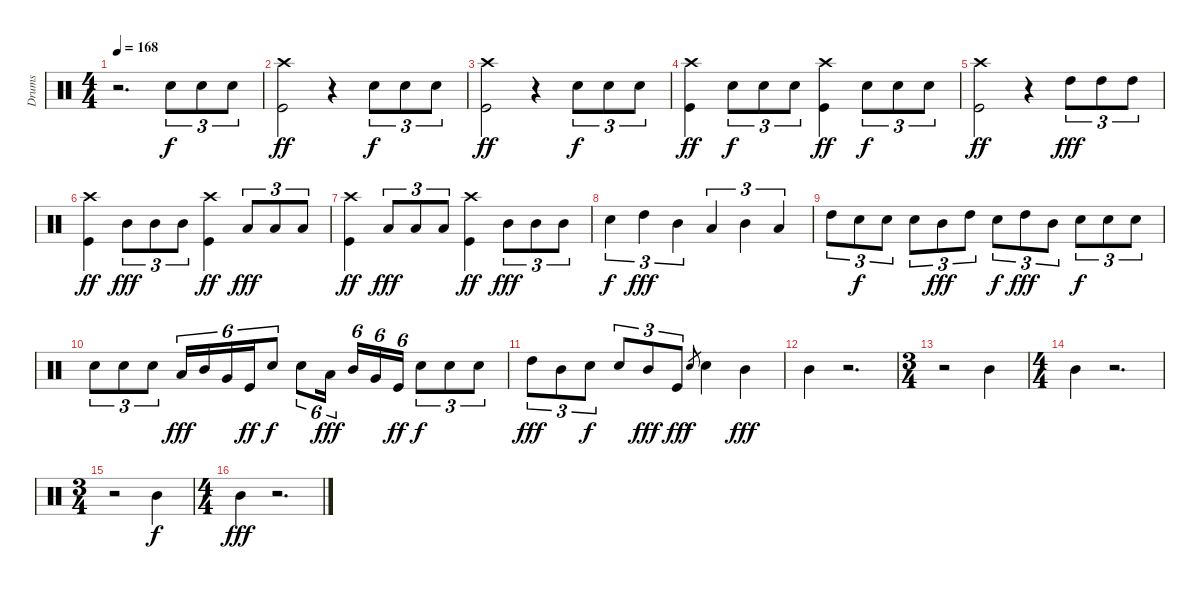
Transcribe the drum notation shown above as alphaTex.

\track ("Drums" "Drums") {instrument percussion}
\staff {score}
\articulation defaults
\ts (4 4)
\tempo 168
\clef neutral
\ks c
r.2{d dy f} "Electric Snare (hit)".8{tu (3 2)} "Electric Snare (hit)".8{tu (3 2)} "Electric Snare (hit)".8{tu (3 2)} |
("Crash high (hit)" "Kick (hit)").2{dy ff} r.4 "Electric Snare (hit)".8{tu (3 2) dy f} "Electric Snare (hit)".8{tu (3 2)} "Electric Snare (hit)".8{tu (3 2)} |
("Crash high (hit)" "Kick (hit)").2{dy ff} r.4 "Electric Snare (hit)".8{tu (3 2) dy f} "Electric Snare (hit)".8{tu (3 2)} "Electric Snare (hit)".8{tu (3 2)} |
("Crash high (hit)" "Kick (hit)").4{dy ff} "Electric Snare (hit)".8{tu (3 2) dy f} "Electric Snare (hit)".8{tu (3 2)} "Electric Snare (hit)".8{tu (3 2)} ("Crash high (hit)" "Kick (hit)").4{dy ff} "Electric Snare (hit)".8{tu (3 2) dy f} "Electric Snare (hit)".8{tu (3 2)} "Electric Snare (hit)".8{tu (3 2)} |
("Crash high (hit)" "Kick (hit)").2{dy ff} r.4 "High Tom (hit)".8{tu (3 2) dy fff} "High Tom (hit)".8{tu (3 2)} "High Tom (hit)".8{tu (3 2)} |
("Crash high (hit)" "Kick (hit)").4{dy ff} "Mid Tom (hit)".8{tu (3 2) dy fff} "Mid Tom (hit)".8{tu (3 2)} "Mid Tom (hit)".8{tu (3 2)} ("Crash high (hit)" "Kick (hit)").4{dy ff} "Low Tom (hit)".8{tu (3 2) dy fff} "Low Tom (hit)".8{tu (3 2)} "Low Tom (hit)".8{tu (3 2)} |
("Crash high (hit)" "Kick (hit)").4{dy ff} "Low Tom (hit)".8{tu (3 2) dy fff} "Low Tom (hit)".8{tu (3 2)} "Low Tom (hit)".8{tu (3 2)} ("Crash high (hit)" "Kick (hit)").4{dy ff} "Mid Tom (hit)".8{tu (3 2) dy fff} "Mid Tom (hit)".8{tu (3 2)} "Mid Tom (hit)".8{tu (3 2)} |
"Electric Snare (hit)".4{tu (3 2) dy f} "High Tom (hit)".4{tu (3 2) dy fff} "Mid Tom (hit)".4{tu (3 2)} "Low Tom (hit)".4{tu (3 2)} "Mid Tom (hit)".4{tu (3 2)} "Low Tom (hit)".4{tu (3 2)} |
"High Tom (hit)".8{tu (3 2)} "Electric Snare (hit)".8{tu (3 2) dy f} "Electric Snare (hit)".8{tu (3 2)} "Electric Snare (hit)".8{tu (3 2)} "Mid Tom (hit)".8{tu (3 2) dy fff} "High Tom (hit)".8{tu (3 2)} "Electric Snare (hit)".8{tu (3 2) dy f} "High Tom (hit)".8{tu (3 2) dy fff} "Mid Tom (hit)".8{tu (3 2)} "Electric Snare (hit)".8{tu (3 2) dy f} "Electric Snare (hit)".8{tu (3 2)} "Electric Snare (hit)".8{tu (3 2)} |
"Electric Snare (hit)".8{tu (3 2)} "Electric Snare (hit)".8{tu (3 2)} "Electric Snare (hit)".8{tu (3 2)} "Low Tom (hit)".16{tu (6 4) dy fff} "Mid Tom (hit)".16{tu (6 4)} "Very Low Tom (hit)".16{tu (6 4)} "Kick (hit)".16{tu (6 4) dy ff} "Electric Snare (hit)".8{tu (6 4) dy f} "Electric Snare (hit)".8{tu (6 4)} "Low Tom (hit)".16{tu (6 4) dy fff} "Mid Tom (hit)".16{tu (6 4)} "Very Low Tom (hit)".16{tu (6 4)} "Kick (hit)".16{tu (6 4) dy ff} "Electric Snare (hit)".8{tu (3 2) dy f} "Electric Snare (hit)".8{tu (3 2)} "Electric Snare (hit)".8{tu (3 2)} |
"High Tom (hit)".8{tu (3 2) dy fff} "Mid Tom (hit)".8{tu (3 2)} "Electric Snare (hit)".8{tu (3 2) dy f} "Electric Snare (hit)".8{tu (3 2)} "Mid Tom (hit)".8{tu (3 2) dy fff} "Kick (hit)".8{tu (3 2) dy ff} "Electric Snare (hit)".8{gr dy f} "Electric Snare (hit)".4 "Mid Tom (hit)".4{dy fff} |
"Mid Tom (hit)".4 r.2{d} |
\ts (3 4)
r.2 "Mid Tom (hit)".4 |
\ts (4 4)
"Mid Tom (hit)".4 r.2{d} |
\ts (3 4)
r.2 "Mid Tom (hit)".4{dy f} |
\ts (4 4)
"Mid Tom (hit)".4{dy fff} r.2{d}
